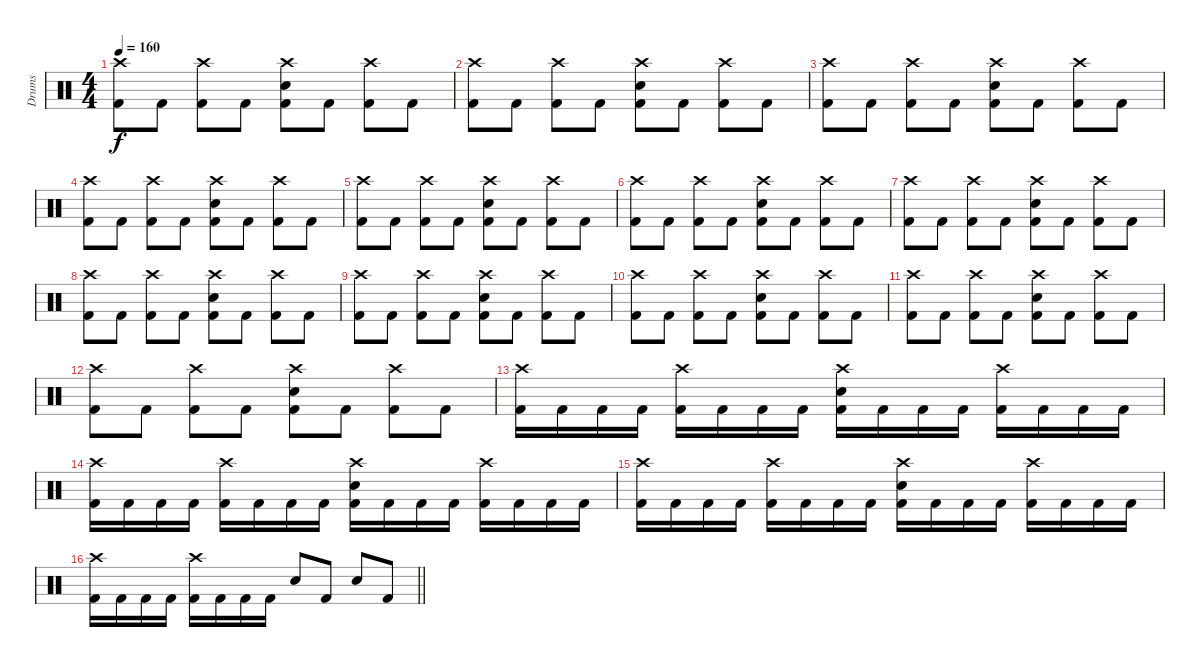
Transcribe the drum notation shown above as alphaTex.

\track ("Drums" "Drums") {instrument percussion}
\staff {score}
\articulation defaults
\ts (4 4)
\tempo 160
\clef neutral
\ks c
("Crash high (hit)" "Kick (hit) 2").8{dy f} "Kick (hit) 2".8 ("Crash high (hit)" "Kick (hit) 2").8 "Kick (hit) 2".8 ("Crash high (hit)" "Electric Snare (hit)" "Kick (hit) 2").8 "Kick (hit) 2".8 ("Crash high (hit)" "Kick (hit) 2").8 "Kick (hit) 2".8 |
("Crash high (hit)" "Kick (hit) 2").8 "Kick (hit) 2".8 ("Crash high (hit)" "Kick (hit) 2").8 "Kick (hit) 2".8 ("Crash high (hit)" "Electric Snare (hit)" "Kick (hit) 2").8 "Kick (hit) 2".8 ("Crash high (hit)" "Kick (hit) 2").8 "Kick (hit) 2".8 |
("Crash high (hit)" "Kick (hit) 2").8 "Kick (hit) 2".8 ("Crash high (hit)" "Kick (hit) 2").8 "Kick (hit) 2".8 ("Crash high (hit)" "Electric Snare (hit)" "Kick (hit) 2").8 "Kick (hit) 2".8 ("Crash high (hit)" "Kick (hit) 2").8 "Kick (hit) 2".8 |
("Crash high (hit)" "Kick (hit) 2").8 "Kick (hit) 2".8 ("Crash high (hit)" "Kick (hit) 2").8 "Kick (hit) 2".8 ("Crash high (hit)" "Electric Snare (hit)" "Kick (hit) 2").8 "Kick (hit) 2".8 ("Crash high (hit)" "Kick (hit) 2").8 "Kick (hit) 2".8 |
("Crash high (hit)" "Kick (hit) 2").8 "Kick (hit) 2".8 ("Crash high (hit)" "Kick (hit) 2").8 "Kick (hit) 2".8 ("Crash high (hit)" "Electric Snare (hit)" "Kick (hit) 2").8 "Kick (hit) 2".8 ("Crash high (hit)" "Kick (hit) 2").8 "Kick (hit) 2".8 |
("Crash high (hit)" "Kick (hit) 2").8 "Kick (hit) 2".8 ("Crash high (hit)" "Kick (hit) 2").8 "Kick (hit) 2".8 ("Crash high (hit)" "Electric Snare (hit)" "Kick (hit) 2").8 "Kick (hit) 2".8 ("Crash high (hit)" "Kick (hit) 2").8 "Kick (hit) 2".8 |
("Crash high (hit)" "Kick (hit) 2").8 "Kick (hit) 2".8 ("Crash high (hit)" "Kick (hit) 2").8 "Kick (hit) 2".8 ("Crash high (hit)" "Electric Snare (hit)" "Kick (hit) 2").8 "Kick (hit) 2".8 ("Crash high (hit)" "Kick (hit) 2").8 "Kick (hit) 2".8 |
("Crash high (hit)" "Kick (hit) 2").8 "Kick (hit) 2".8 ("Crash high (hit)" "Kick (hit) 2").8 "Kick (hit) 2".8 ("Crash high (hit)" "Electric Snare (hit)" "Kick (hit) 2").8 "Kick (hit) 2".8 ("Crash high (hit)" "Kick (hit) 2").8 "Kick (hit) 2".8 |
("Crash high (hit)" "Kick (hit) 2").8 "Kick (hit) 2".8 ("Crash high (hit)" "Kick (hit) 2").8 "Kick (hit) 2".8 ("Crash high (hit)" "Electric Snare (hit)" "Kick (hit) 2").8 "Kick (hit) 2".8 ("Crash high (hit)" "Kick (hit) 2").8 "Kick (hit) 2".8 |
("Crash high (hit)" "Kick (hit) 2").8 "Kick (hit) 2".8 ("Crash high (hit)" "Kick (hit) 2").8 "Kick (hit) 2".8 ("Crash high (hit)" "Electric Snare (hit)" "Kick (hit) 2").8 "Kick (hit) 2".8 ("Crash high (hit)" "Kick (hit) 2").8 "Kick (hit) 2".8 |
("Crash high (hit)" "Kick (hit) 2").8 "Kick (hit) 2".8 ("Crash high (hit)" "Kick (hit) 2").8 "Kick (hit) 2".8 ("Crash high (hit)" "Electric Snare (hit)" "Kick (hit) 2").8 "Kick (hit) 2".8 ("Crash high (hit)" "Kick (hit) 2").8 "Kick (hit) 2".8 |
("Crash high (hit)" "Kick (hit) 2").8 "Kick (hit) 2".8 ("Crash high (hit)" "Kick (hit) 2").8 "Kick (hit) 2".8 ("Crash high (hit)" "Electric Snare (hit)" "Kick (hit) 2").8 "Kick (hit) 2".8 ("Crash high (hit)" "Kick (hit) 2").8 "Kick (hit) 2".8 |
("Crash high (hit)" "Kick (hit) 2").16 "Kick (hit) 2".16 "Kick (hit) 2".16 "Kick (hit) 2".16 ("Crash high (hit)" "Kick (hit) 2").16 "Kick (hit) 2".16 "Kick (hit) 2".16 "Kick (hit) 2".16 ("Crash high (hit)" "Electric Snare (hit)" "Kick (hit) 2").16 "Kick (hit) 2".16 "Kick (hit) 2".16 "Kick (hit) 2".16 ("Crash high (hit)" "Kick (hit) 2").16 "Kick (hit) 2".16 "Kick (hit) 2".16 "Kick (hit) 2".16 |
("Crash high (hit)" "Kick (hit) 2").16 "Kick (hit) 2".16 "Kick (hit) 2".16 "Kick (hit) 2".16 ("Crash high (hit)" "Kick (hit) 2").16 "Kick (hit) 2".16 "Kick (hit) 2".16 "Kick (hit) 2".16 ("Crash high (hit)" "Electric Snare (hit)" "Kick (hit) 2").16 "Kick (hit) 2".16 "Kick (hit) 2".16 "Kick (hit) 2".16 ("Crash high (hit)" "Kick (hit) 2").16 "Kick (hit) 2".16 "Kick (hit) 2".16 "Kick (hit) 2".16 |
("Crash high (hit)" "Kick (hit) 2").16 "Kick (hit) 2".16 "Kick (hit) 2".16 "Kick (hit) 2".16 ("Crash high (hit)" "Kick (hit) 2").16 "Kick (hit) 2".16 "Kick (hit) 2".16 "Kick (hit) 2".16 ("Crash high (hit)" "Electric Snare (hit)" "Kick (hit) 2").16 "Kick (hit) 2".16 "Kick (hit) 2".16 "Kick (hit) 2".16 ("Crash high (hit)" "Kick (hit) 2").16 "Kick (hit) 2".16 "Kick (hit) 2".16 "Kick (hit) 2".16 |
\barLineRight lightlight
("Crash high (hit)" "Kick (hit) 2").16 "Kick (hit) 2".16 "Kick (hit) 2".16 "Kick (hit) 2".16 ("Crash high (hit)" "Kick (hit) 2").16 "Kick (hit) 2".16 "Kick (hit) 2".16 "Kick (hit) 2".16 "Electric Snare (hit)".8 "Kick (hit) 2".8 "Electric Snare (hit)".8 "Kick (hit) 2".8
